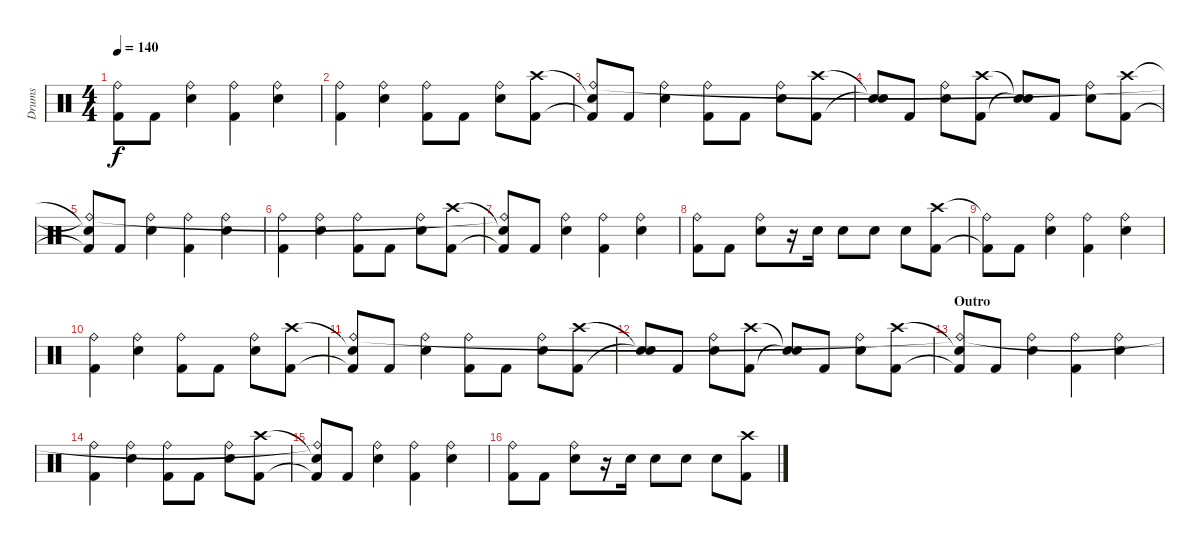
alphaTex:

\track ("Drums" "Drums") {instrument percussion}
\staff {score}
\articulation defaults
\ts (4 4)
\tempo 140
\clef neutral
\ks c
("Kick (hit) 2"{t} "Ride (bell)"{t}).8{dy f} "Kick (hit) 2".8 ("Electric Snare (hit)" "Ride (bell)").4 ("Kick (hit) 2" "Ride (bell)").4 ("Electric Snare (hit)" "Ride (bell)").4 |
("Kick (hit) 2" "Ride (bell)").4 ("Electric Snare (hit)" "Ride (bell)").4 ("Kick (hit) 2" "Ride (bell)").8 "Kick (hit) 2".8 ("Electric Snare (hit)" "Ride (bell)").8 ("Kick (hit) 2" "Crash high (hit)").8 |
("Kick (hit) 2"{t} "Snare (hit)"{t} "Ride (bell)").8 "Kick (hit) 2".8 ("Electric Snare (hit)" "Ride (bell)").4 ("Kick (hit) 2" "Ride (bell)").8 "Kick (hit) 2".8 ("Electric Snare (hit)" "Ride (bell)").8 ("Kick (hit) 2" "Crash high (hit)").8 |
("Snare (hit)"{t} "Snare (hit)"{t}).8 "Kick (hit) 2".8 ("Electric Snare (hit)" "Ride (bell)").8 ("Kick (hit) 2" "Crash high (hit)").8 ("Snare (hit)"{t} "Snare (hit)"{t}).8 "Kick (hit) 2".8 ("Electric Snare (hit)" "Ride (bell)").8 ("Kick (hit) 2" "Crash high (hit)").8 |
("Kick (hit) 2"{t} "Snare (hit)"{t} "Ride (bell)"{t}).8 "Kick (hit) 2".8 ("Electric Snare (hit)" "Ride (bell)").4 ("Kick (hit) 2" "Ride (bell)").4 ("Electric Snare (hit)" "Ride (bell)").4 |
("Kick (hit) 2" "Ride (bell)").4 ("Electric Snare (hit)" "Ride (bell)").4 ("Kick (hit) 2" "Ride (bell)").8 "Kick (hit) 2".8 ("Electric Snare (hit)" "Ride (bell)").8 ("Kick (hit) 2" "Crash high (hit)").8 |
("Kick (hit) 2"{t} "Snare (hit)"{t} "Ride (bell)"{t}).8 "Kick (hit) 2".8 ("Electric Snare (hit)" "Ride (bell)").4 ("Kick (hit) 2" "Ride (bell)").4 ("Electric Snare (hit)" "Ride (bell)").4 |
("Kick (hit) 2" "Ride (bell)").8 "Kick (hit) 2".8 ("Electric Snare (hit)" "Ride (bell)").8 r.16 "Electric Snare (hit)".16 "Electric Snare (hit)".8 "Electric Snare (hit)".8 "Electric Snare (hit)".8 ("Kick (hit) 2" "Crash high (hit)").8 |
("Kick (hit) 2"{t} "Ride (bell)"{t}).8 "Kick (hit) 2".8 ("Electric Snare (hit)" "Ride (bell)").4 ("Kick (hit) 2" "Ride (bell)").4 ("Electric Snare (hit)" "Ride (bell)").4 |
("Kick (hit) 2" "Ride (bell)").4 ("Electric Snare (hit)" "Ride (bell)").4 ("Kick (hit) 2" "Ride (bell)").8 "Kick (hit) 2".8 ("Electric Snare (hit)" "Ride (bell)").8 ("Kick (hit) 2" "Crash high (hit)").8 |
("Kick (hit) 2"{t} "Snare (hit)"{t} "Ride (bell)").8 "Kick (hit) 2".8 ("Electric Snare (hit)" "Ride (bell)").4 ("Kick (hit) 2" "Ride (bell)").8 "Kick (hit) 2".8 ("Electric Snare (hit)" "Ride (bell)").8 ("Kick (hit) 2" "Crash high (hit)").8 |
("Snare (hit)"{t} "Snare (hit)"{t}).8 "Kick (hit) 2".8 ("Electric Snare (hit)" "Ride (bell)").8 ("Kick (hit) 2" "Crash high (hit)").8 ("Snare (hit)"{t} "Snare (hit)"{t}).8 "Kick (hit) 2".8 ("Electric Snare (hit)" "Ride (bell)").8 ("Kick (hit) 2" "Crash high (hit)").8 |
\section ("" "Outro")
("Kick (hit) 2"{t} "Snare (hit)"{t} "Ride (bell)"{t}).8 "Kick (hit) 2".8 ("Electric Snare (hit)" "Ride (bell)").4 ("Kick (hit) 2" "Ride (bell)").4 ("Electric Snare (hit)" "Ride (bell)").4 |
("Kick (hit) 2" "Ride (bell)").4 ("Electric Snare (hit)" "Ride (bell)").4 ("Kick (hit) 2" "Ride (bell)").8 "Kick (hit) 2".8 ("Electric Snare (hit)" "Ride (bell)").8 ("Kick (hit) 2" "Crash high (hit)").8 |
("Kick (hit) 2"{t} "Snare (hit)"{t} "Ride (bell)"{t}).8 "Kick (hit) 2".8 ("Electric Snare (hit)" "Ride (bell)").4 ("Kick (hit) 2" "Ride (bell)").4 ("Electric Snare (hit)" "Ride (bell)").4 |
("Kick (hit) 2" "Ride (bell)").8 "Kick (hit) 2".8 ("Electric Snare (hit)" "Ride (bell)").8 r.16 "Electric Snare (hit)".16 "Electric Snare (hit)".8 "Electric Snare (hit)".8 "Electric Snare (hit)".8 ("Kick (hit) 2" "Crash high (hit)").8
